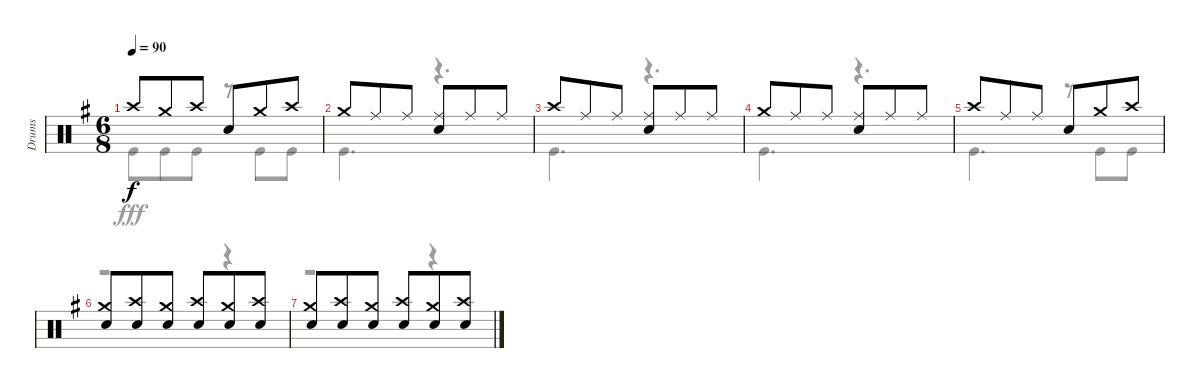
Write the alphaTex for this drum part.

\track ("Drums" "Drums") {instrument percussion}
\staff {score}
\articulation defaults
\voice
\ts (6 8)
\tempo 90
\clef neutral
\ks g "Crash high (hit)".8{dy f} "Crash medium (hit)".8 "Crash high (hit)".8 "Snare (hit) 2".8 "Crash medium (hit)".8 "Crash high (hit)".8
|
"Crash medium (hit)".8 "Ride (middle)".8 "Ride (middle)".8 ("Ride (middle)" "Snare (hit) 2").8 "Ride (middle)".8 "Ride (middle)".8 |
"Crash high (hit)".8 "Ride (middle)".8 "Ride (middle)".8 ("Ride (middle)" "Snare (hit) 2").8 "Ride (middle)".8 "Ride (middle)".8 |
"Crash medium (hit)".8 "Ride (middle)".8 "Ride (middle)".8 ("Ride (middle)" "Snare (hit) 2").8 "Ride (middle)".8 "Ride (middle)".8 |
"Crash high (hit)".8 "Ride (middle)".8 "Ride (middle)".8 "Snare (hit) 2".8 "Crash medium (hit)".8 "Crash high (hit)".8 |
("Crash medium (hit)" "Snare (hit) 2").8 ("Crash high (hit)" "Snare (hit) 2").8 ("Crash medium (hit)" "Snare (hit) 2").8 ("Crash high (hit)" "Snare (hit) 2").8 ("Crash medium (hit)" "Snare (hit) 2").8 ("Crash high (hit)" "Snare (hit) 2").8 |
("Crash medium (hit)" "Snare (hit) 2").8 ("Crash high (hit)" "Snare (hit) 2").8 ("Crash medium (hit)" "Snare (hit) 2").8 ("Crash high (hit)" "Snare (hit) 2").8 ("Crash medium (hit)" "Snare (hit) 2").8 ("Crash high (hit)" "Snare (hit) 2").8
\voice
\clef neutral
\ottava regular
\simile none
\ks g "Kick (hit)".8{dy fff} "Kick (hit)".8 "Kick (hit)".8
r.8 "Kick (hit)".8 "Kick (hit)".8 |
"Kick (hit)".4{d} r.4{d} |
"Kick (hit)".4{d} r.4{d} |
"Kick (hit)".4{d} r.4{d} |
"Kick (hit)".4{d} r.8 "Kick (hit)".8 "Kick (hit)".8 |
r.2 r.4 |
r.2 r.4
